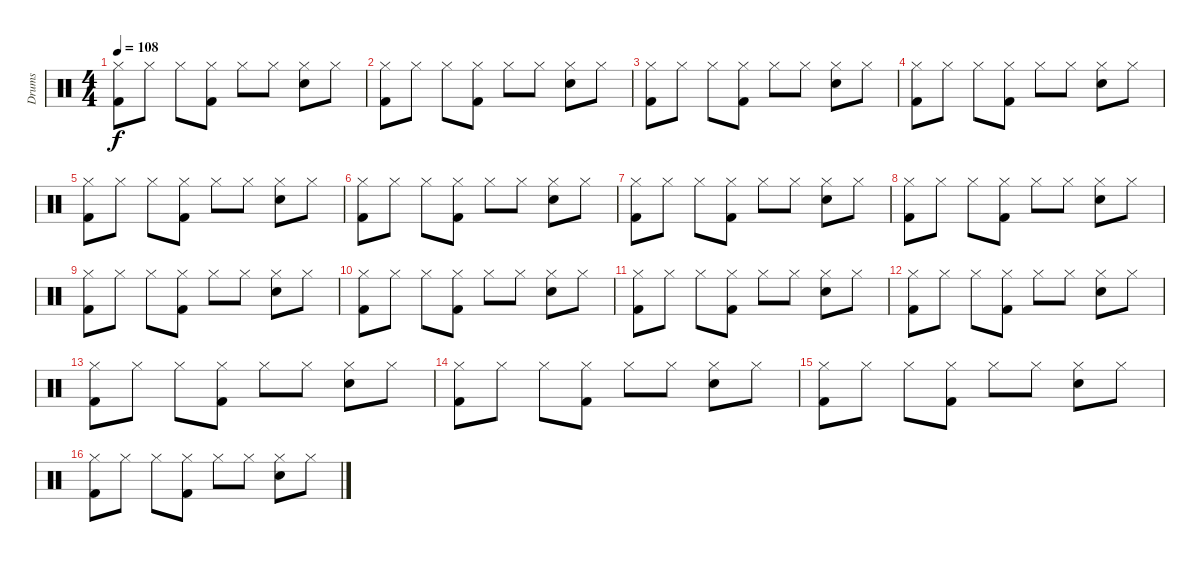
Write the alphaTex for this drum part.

\track ("Drums" "Drums") {instrument percussion}
\staff {score}
\articulation defaults
\ts (4 4)
\tempo 108
\clef neutral
\ks c
("Hi-Hat (closed)" "Kick (hit) 2").8{dy f} "Hi-Hat (closed)".8 "Hi-Hat (closed)".8 ("Hi-Hat (closed)" "Kick (hit) 2").8 "Hi-Hat (closed)".8 "Hi-Hat (closed)".8 ("Hi-Hat (closed)" "Snare (hit) 2").8 "Hi-Hat (closed)".8 |
("Hi-Hat (closed)" "Kick (hit) 2").8 "Hi-Hat (closed)".8 "Hi-Hat (closed)".8 ("Hi-Hat (closed)" "Kick (hit) 2").8 "Hi-Hat (closed)".8 "Hi-Hat (closed)".8 ("Hi-Hat (closed)" "Snare (hit) 2").8 "Hi-Hat (closed)".8 |
("Hi-Hat (closed)" "Kick (hit) 2").8 "Hi-Hat (closed)".8 "Hi-Hat (closed)".8 ("Hi-Hat (closed)" "Kick (hit) 2").8 "Hi-Hat (closed)".8 "Hi-Hat (closed)".8 ("Hi-Hat (closed)" "Snare (hit) 2").8 "Hi-Hat (closed)".8 |
("Hi-Hat (closed)" "Kick (hit) 2").8 "Hi-Hat (closed)".8 "Hi-Hat (closed)".8 ("Hi-Hat (closed)" "Kick (hit) 2").8 "Hi-Hat (closed)".8 "Hi-Hat (closed)".8 ("Hi-Hat (closed)" "Snare (hit) 2").8 "Hi-Hat (closed)".8 |
("Hi-Hat (closed)" "Kick (hit) 2").8 "Hi-Hat (closed)".8 "Hi-Hat (closed)".8 ("Hi-Hat (closed)" "Kick (hit) 2").8 "Hi-Hat (closed)".8 "Hi-Hat (closed)".8 ("Hi-Hat (closed)" "Snare (hit) 2").8 "Hi-Hat (closed)".8 |
("Hi-Hat (closed)" "Kick (hit) 2").8 "Hi-Hat (closed)".8 "Hi-Hat (closed)".8 ("Hi-Hat (closed)" "Kick (hit) 2").8 "Hi-Hat (closed)".8 "Hi-Hat (closed)".8 ("Hi-Hat (closed)" "Snare (hit) 2").8 "Hi-Hat (closed)".8 |
("Hi-Hat (closed)" "Kick (hit) 2").8 "Hi-Hat (closed)".8 "Hi-Hat (closed)".8 ("Hi-Hat (closed)" "Kick (hit) 2").8 "Hi-Hat (closed)".8 "Hi-Hat (closed)".8 ("Hi-Hat (closed)" "Snare (hit) 2").8 "Hi-Hat (closed)".8 |
("Hi-Hat (closed)" "Kick (hit) 2").8 "Hi-Hat (closed)".8 "Hi-Hat (closed)".8 ("Hi-Hat (closed)" "Kick (hit) 2").8 "Hi-Hat (closed)".8 "Hi-Hat (closed)".8 ("Hi-Hat (closed)" "Snare (hit) 2").8 "Hi-Hat (closed)".8 |
("Hi-Hat (closed)" "Kick (hit) 2").8 "Hi-Hat (closed)".8 "Hi-Hat (closed)".8 ("Hi-Hat (closed)" "Kick (hit) 2").8 "Hi-Hat (closed)".8 "Hi-Hat (closed)".8 ("Hi-Hat (closed)" "Snare (hit) 2").8 "Hi-Hat (closed)".8 |
("Hi-Hat (closed)" "Kick (hit) 2").8 "Hi-Hat (closed)".8 "Hi-Hat (closed)".8 ("Hi-Hat (closed)" "Kick (hit) 2").8 "Hi-Hat (closed)".8 "Hi-Hat (closed)".8 ("Hi-Hat (closed)" "Snare (hit) 2").8 "Hi-Hat (closed)".8 |
("Hi-Hat (closed)" "Kick (hit) 2").8 "Hi-Hat (closed)".8 "Hi-Hat (closed)".8 ("Hi-Hat (closed)" "Kick (hit) 2").8 "Hi-Hat (closed)".8 "Hi-Hat (closed)".8 ("Hi-Hat (closed)" "Snare (hit) 2").8 "Hi-Hat (closed)".8 |
("Hi-Hat (closed)" "Kick (hit) 2").8 "Hi-Hat (closed)".8 "Hi-Hat (closed)".8 ("Hi-Hat (closed)" "Kick (hit) 2").8 "Hi-Hat (closed)".8 "Hi-Hat (closed)".8 ("Hi-Hat (closed)" "Snare (hit) 2").8 "Hi-Hat (closed)".8 |
("Hi-Hat (closed)" "Kick (hit) 2").8 "Hi-Hat (closed)".8 "Hi-Hat (closed)".8 ("Hi-Hat (closed)" "Kick (hit) 2").8 "Hi-Hat (closed)".8 "Hi-Hat (closed)".8 ("Hi-Hat (closed)" "Snare (hit) 2").8 "Hi-Hat (closed)".8 |
("Hi-Hat (closed)" "Kick (hit) 2").8 "Hi-Hat (closed)".8 "Hi-Hat (closed)".8 ("Hi-Hat (closed)" "Kick (hit) 2").8 "Hi-Hat (closed)".8 "Hi-Hat (closed)".8 ("Hi-Hat (closed)" "Snare (hit) 2").8 "Hi-Hat (closed)".8 |
("Hi-Hat (closed)" "Kick (hit) 2").8 "Hi-Hat (closed)".8 "Hi-Hat (closed)".8 ("Hi-Hat (closed)" "Kick (hit) 2").8 "Hi-Hat (closed)".8 "Hi-Hat (closed)".8 ("Hi-Hat (closed)" "Snare (hit) 2").8 "Hi-Hat (closed)".8 |
("Hi-Hat (closed)" "Kick (hit) 2").8 "Hi-Hat (closed)".8 "Hi-Hat (closed)".8 ("Hi-Hat (closed)" "Kick (hit) 2").8 "Hi-Hat (closed)".8 "Hi-Hat (closed)".8 ("Hi-Hat (closed)" "Snare (hit) 2").8 "Hi-Hat (closed)".8
